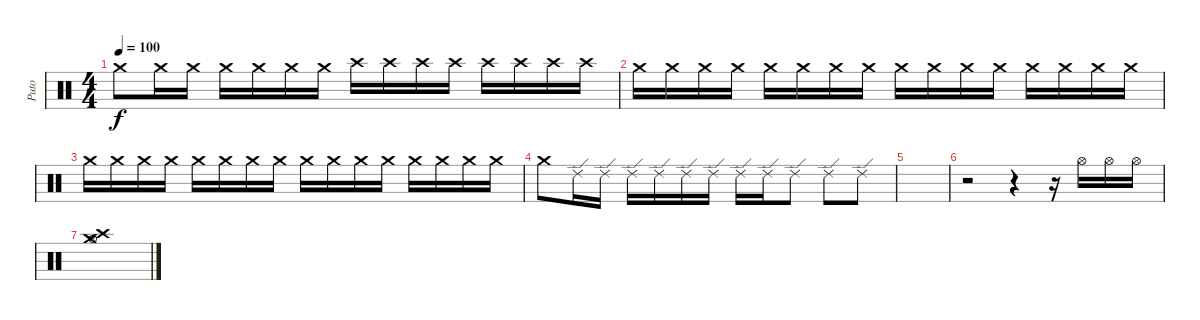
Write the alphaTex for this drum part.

\track ("Puto" "Puto") {instrument percussion}
\staff {score}
\articulation defaults
\ts (4 4)
\tempo 100
\clef neutral
\ks c "Crash medium (hit)".8{dy f} "Crash medium (hit)".16 "Crash medium (hit)".16 "Crash medium (hit)".16 "Crash medium (hit)".16 "Crash medium (hit)".16 "Crash medium (hit)".16 "Crash high (hit)".16 "Crash high (hit)".16 "Crash high (hit)".16 "Crash high (hit)".16 "Crash high (hit)".16 "Crash high (hit)".16 "Crash high (hit)".16 "Crash high (hit)".16
|
"Crash medium (hit)".16 "Crash medium (hit)".16 "Crash medium (hit)".16 "Crash medium (hit)".16 "Crash medium (hit)".16 "Crash medium (hit)".16 "Crash medium (hit)".16 "Crash medium (hit)".16 "Crash medium (hit)".16 "Crash medium (hit)".16 "Crash medium (hit)".16 "Crash medium (hit)".16 "Crash medium (hit)".16 "Crash medium (hit)".16 "Crash medium (hit)".16 "Crash medium (hit)".16 |
"Crash medium (hit)".16 "Crash medium (hit)".16 "Crash medium (hit)".16 "Crash medium (hit)".16 "Crash medium (hit)".16 "Crash medium (hit)".16 "Crash medium (hit)".16 "Crash medium (hit)".16 "Crash medium (hit)".16 "Crash medium (hit)".16 "Crash medium (hit)".16 "Crash medium (hit)".16 "Crash medium (hit)".16 "Crash medium (hit)".16 "Crash medium (hit)".16 "Crash medium (hit)".16 |
"Crash medium (hit)".8 "Ride (edge) 2".16 "Ride (edge) 2".16 "Ride (edge) 2".16 "Ride (edge) 2".16 "Ride (edge) 2".16 "Ride (edge) 2".16 "Ride (edge) 2".16 "Ride (edge) 2".16 "Ride (edge) 2".8 "Ride (edge) 2".8 "Ride (edge) 2".8 |
|
r.2 r.4 r.16 "Hi-Hat (open)".16 "Hi-Hat (open)".16 "Hi-Hat (open)".16 |
("Crash high (hit)" "Hi-Hat (open)" "Crash medium (hit)").1
